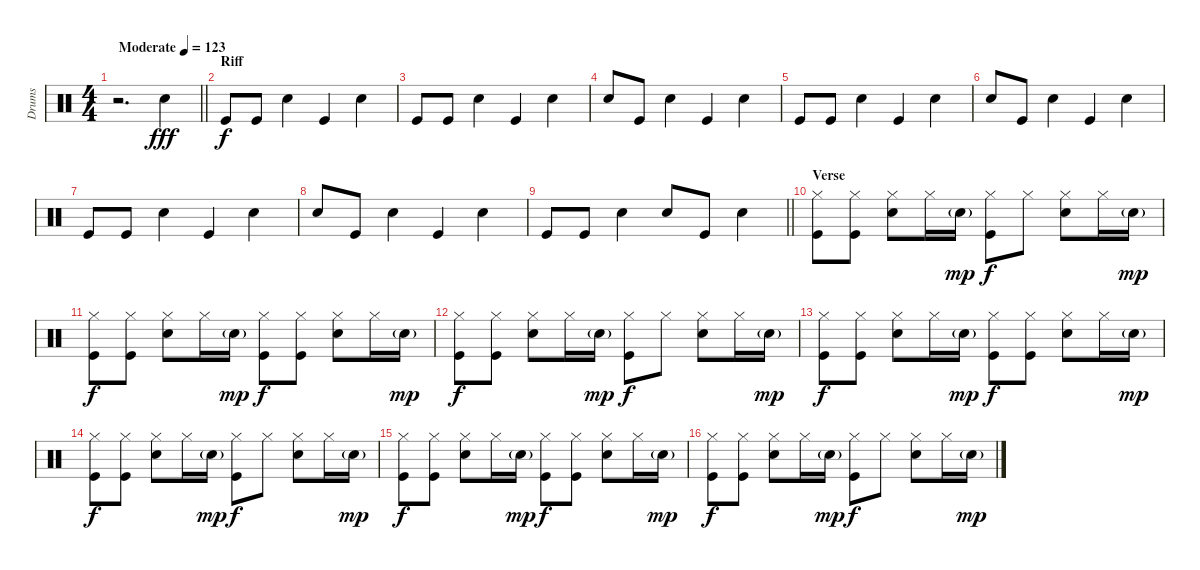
\track ("Drums" "Drums") {instrument percussion}
\staff {score}
\articulation defaults
\ts (4 4)
\tempo (123 "Moderate")
\clef neutral
\barLineRight lightlight
\ks c
r.2{d dy fff} "Snare (hit) 2".4 |
\section ("" "Riff")
"Kick (hit)".8{dy f} "Kick (hit)".8 "Snare (hit) 2".4 "Kick (hit)".4 "Snare (hit) 2".4 |
"Kick (hit)".8 "Kick (hit)".8 "Snare (hit) 2".4 "Kick (hit)".4 "Snare (hit) 2".4 |
"Snare (hit) 2".8 "Kick (hit)".8 "Snare (hit) 2".4 "Kick (hit)".4 "Snare (hit) 2".4 |
"Kick (hit)".8 "Kick (hit)".8 "Snare (hit) 2".4 "Kick (hit)".4 "Snare (hit) 2".4 |
"Snare (hit) 2".8 "Kick (hit)".8 "Snare (hit) 2".4 "Kick (hit)".4 "Snare (hit) 2".4 |
"Kick (hit)".8 "Kick (hit)".8 "Snare (hit) 2".4 "Kick (hit)".4 "Snare (hit) 2".4 |
"Snare (hit) 2".8 "Kick (hit)".8 "Snare (hit) 2".4 "Kick (hit)".4 "Snare (hit) 2".4 |
\barLineRight lightlight "Kick (hit)".8 "Kick (hit)".8 "Snare (hit) 2".4 "Snare (hit) 2".8 "Kick (hit)".8 "Snare (hit) 2".4
|
\section ("" "Verse")
("Hi-Hat (closed)" "Kick (hit)").8 ("Hi-Hat (closed)" "Kick (hit)").8 ("Hi-Hat (closed)" "Snare (hit) 2").8 "Hi-Hat (closed)".16 "Snare (hit) 2"{g}.16{dy mp} ("Hi-Hat (closed)" "Kick (hit)").8{dy f} "Hi-Hat (closed)".8 ("Hi-Hat (closed)" "Snare (hit) 2").8 "Hi-Hat (closed)".16 "Snare (hit) 2"{g}.16{dy mp} |
("Hi-Hat (closed)" "Kick (hit)").8{dy f} ("Hi-Hat (closed)" "Kick (hit)").8 ("Hi-Hat (closed)" "Snare (hit) 2").8 "Hi-Hat (closed)".16 "Snare (hit) 2"{g}.16{dy mp} ("Hi-Hat (closed)" "Kick (hit)").8{dy f} ("Hi-Hat (closed)" "Kick (hit)").8 ("Hi-Hat (closed)" "Snare (hit) 2").8 "Hi-Hat (closed)".16 "Snare (hit) 2"{g}.16{dy mp} |
("Hi-Hat (closed)" "Kick (hit)").8{dy f} ("Hi-Hat (closed)" "Kick (hit)").8 ("Hi-Hat (closed)" "Snare (hit) 2").8 "Hi-Hat (closed)".16 "Snare (hit) 2"{g}.16{dy mp} ("Hi-Hat (closed)" "Kick (hit)").8{dy f} "Hi-Hat (closed)".8 ("Hi-Hat (closed)" "Snare (hit) 2").8 "Hi-Hat (closed)".16 "Snare (hit) 2"{g}.16{dy mp} |
("Hi-Hat (closed)" "Kick (hit)").8{dy f} ("Hi-Hat (closed)" "Kick (hit)").8 ("Hi-Hat (closed)" "Snare (hit) 2").8 "Hi-Hat (closed)".16 "Snare (hit) 2"{g}.16{dy mp} ("Hi-Hat (closed)" "Kick (hit)").8{dy f} ("Hi-Hat (closed)" "Kick (hit)").8 ("Hi-Hat (closed)" "Snare (hit) 2").8 "Hi-Hat (closed)".16 "Snare (hit) 2"{g}.16{dy mp} |
("Hi-Hat (closed)" "Kick (hit)").8{dy f} ("Hi-Hat (closed)" "Kick (hit)").8 ("Hi-Hat (closed)" "Snare (hit) 2").8 "Hi-Hat (closed)".16 "Snare (hit) 2"{g}.16{dy mp} ("Hi-Hat (closed)" "Kick (hit)").8{dy f} "Hi-Hat (closed)".8 ("Hi-Hat (closed)" "Snare (hit) 2").8 "Hi-Hat (closed)".16 "Snare (hit) 2"{g}.16{dy mp} |
("Hi-Hat (closed)" "Kick (hit)").8{dy f} ("Hi-Hat (closed)" "Kick (hit)").8 ("Hi-Hat (closed)" "Snare (hit) 2").8 "Hi-Hat (closed)".16 "Snare (hit) 2"{g}.16{dy mp} ("Hi-Hat (closed)" "Kick (hit)").8{dy f} ("Hi-Hat (closed)" "Kick (hit)").8 ("Hi-Hat (closed)" "Snare (hit) 2").8 "Hi-Hat (closed)".16 "Snare (hit) 2"{g}.16{dy mp} |
("Hi-Hat (closed)" "Kick (hit)").8{dy f} ("Hi-Hat (closed)" "Kick (hit)").8 ("Hi-Hat (closed)" "Snare (hit) 2").8 "Hi-Hat (closed)".16 "Snare (hit) 2"{g}.16{dy mp} ("Hi-Hat (closed)" "Kick (hit)").8{dy f} "Hi-Hat (closed)".8 ("Hi-Hat (closed)" "Snare (hit) 2").8 "Hi-Hat (closed)".16 "Snare (hit) 2"{g}.16{dy mp}
